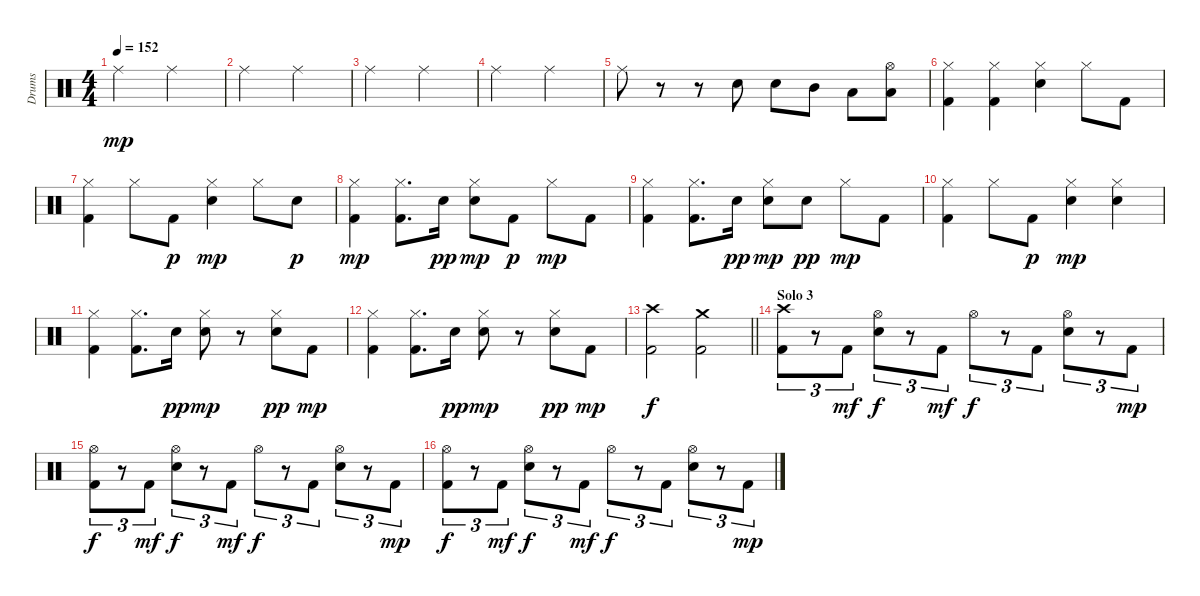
\track ("Drums" "Drums") {instrument percussion}
\staff {score}
\articulation defaults
\ts (4 4)
\tempo 152
\clef neutral
\ks c "Ride (middle)".2{dy mp} "Ride (middle)".2
|
"Ride (middle)".2 "Ride (middle)".2 |
"Ride (middle)".2 "Ride (middle)".2 |
"Ride (middle)".2 "Ride (middle)".2 |
"Ride (middle)".8 r.8 r.8 "Electric Snare (hit)".8 "Electric Snare (hit)".8 "Mid Tom (hit)".8 "Low Tom (hit)".8 ("Hi-Hat (open)" "Low Tom (hit)").8 |
("Hi-Hat (closed)" "Kick (hit) 2").4 ("Hi-Hat (closed)" "Kick (hit) 2").4 ("Hi-Hat (closed)" "Electric Snare (hit)").4 "Hi-Hat (closed)".8 "Kick (hit) 2".8 |
("Hi-Hat (closed)" "Kick (hit) 2").4 "Hi-Hat (closed)".8 "Kick (hit) 2".8{dy p} ("Hi-Hat (closed)" "Electric Snare (hit)").4{dy mp} "Hi-Hat (closed)".8 "Electric Snare (hit)".8{dy p} |
("Hi-Hat (closed)" "Kick (hit) 2").4{dy mp} ("Hi-Hat (closed)" "Kick (hit) 2").8{d} "Electric Snare (hit)".16{dy pp} ("Hi-Hat (closed)" "Electric Snare (hit)").8{dy mp} "Kick (hit) 2".8{dy p} "Hi-Hat (closed)".8{dy mp} "Kick (hit) 2".8 |
("Hi-Hat (closed)" "Kick (hit) 2").4 ("Hi-Hat (closed)" "Kick (hit) 2").8{d} "Electric Snare (hit)".16{dy pp} ("Hi-Hat (closed)" "Electric Snare (hit)").8{dy mp} "Electric Snare (hit)".8{dy pp} "Hi-Hat (closed)".8{dy mp} "Kick (hit) 2".8 |
("Hi-Hat (closed)" "Kick (hit) 2").4 "Hi-Hat (closed)".8 "Kick (hit) 2".8{dy p} ("Hi-Hat (closed)" "Electric Snare (hit)").4{dy mp} ("Hi-Hat (closed)" "Electric Snare (hit)").4 |
("Hi-Hat (closed)" "Kick (hit) 2").4 ("Hi-Hat (closed)" "Kick (hit) 2").8{d} "Electric Snare (hit)".16{dy pp} ("Hi-Hat (closed)" "Electric Snare (hit)").8{dy mp} r.8 ("Hi-Hat (closed)" "Electric Snare (hit)").8{dy pp} "Kick (hit) 2".8{dy mp} |
("Hi-Hat (closed)" "Kick (hit) 2").4 ("Hi-Hat (closed)" "Kick (hit) 2").8{d} "Electric Snare (hit)".16{dy pp} ("Hi-Hat (closed)" "Electric Snare (hit)").8{dy mp} r.8 ("Hi-Hat (closed)" "Electric Snare (hit)").8{dy pp} "Kick (hit) 2".8{dy mp} |
\barLineRight lightlight
("Crash high (hit)" "Kick (hit) 2").2{dy f} ("Crash medium (hit)" "Kick (hit) 2").2 |
\section ("" "Solo 3")
("Crash high (hit)" "Kick (hit) 2").8{tu (3 2)} r.8{tu (3 2)} "Kick (hit) 2".8{tu (3 2) dy mf} ("Hi-Hat (open)" "Snare (hit) 2").8{tu (3 2) dy f} r.8{tu (3 2)} "Kick (hit) 2".8{tu (3 2) dy mf} "Hi-Hat (open)".8{tu (3 2) dy f} r.8{tu (3 2)} "Kick (hit) 2".8{tu (3 2)} ("Hi-Hat (open)" "Snare (hit) 2").8{tu (3 2)} r.8{tu (3 2)} "Kick (hit) 2".8{tu (3 2) dy mp} |
("Hi-Hat (open)" "Kick (hit) 2").8{tu (3 2) dy f} r.8{tu (3 2)} "Kick (hit) 2".8{tu (3 2) dy mf} ("Hi-Hat (open)" "Snare (hit) 2").8{tu (3 2) dy f} r.8{tu (3 2)} "Kick (hit) 2".8{tu (3 2) dy mf} "Hi-Hat (open)".8{tu (3 2) dy f} r.8{tu (3 2)} "Kick (hit) 2".8{tu (3 2)} ("Hi-Hat (open)" "Snare (hit) 2").8{tu (3 2)} r.8{tu (3 2)} "Kick (hit) 2".8{tu (3 2) dy mp} |
("Hi-Hat (open)" "Kick (hit) 2").8{tu (3 2) dy f} r.8{tu (3 2)} "Kick (hit) 2".8{tu (3 2) dy mf} ("Hi-Hat (open)" "Snare (hit) 2").8{tu (3 2) dy f} r.8{tu (3 2)} "Kick (hit) 2".8{tu (3 2) dy mf} "Hi-Hat (open)".8{tu (3 2) dy f} r.8{tu (3 2)} "Kick (hit) 2".8{tu (3 2)} ("Hi-Hat (open)" "Snare (hit) 2").8{tu (3 2)} r.8{tu (3 2)} "Kick (hit) 2".8{tu (3 2) dy mp}
